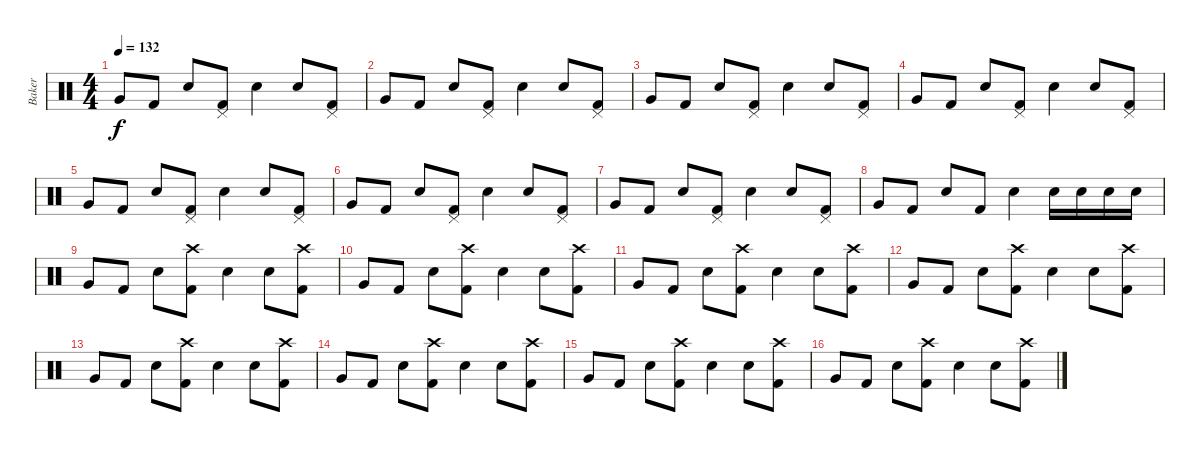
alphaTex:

\track ("Baker" "Baker") {instrument percussion}
\staff {score}
\articulation defaults
\ts (4 4)
\tempo 132
\clef neutral
\ks c "Very Low Tom (hit)".8{dy f} "Kick (hit) 2".8 "Snare (hit) 2".8
("Pedal Hi-Hat (hit)" "Kick (hit) 2").8 "Snare (hit) 2".4 "Snare (hit) 2".8 ("Pedal Hi-Hat (hit)" "Kick (hit) 2").8 |
"Very Low Tom (hit)".8 "Kick (hit) 2".8 "Snare (hit) 2".8 ("Pedal Hi-Hat (hit)" "Kick (hit) 2").8 "Snare (hit) 2".4 "Snare (hit) 2".8 ("Pedal Hi-Hat (hit)" "Kick (hit) 2").8 |
"Very Low Tom (hit)".8 "Kick (hit) 2".8 "Snare (hit) 2".8 ("Pedal Hi-Hat (hit)" "Kick (hit) 2").8 "Snare (hit) 2".4 "Snare (hit) 2".8 ("Pedal Hi-Hat (hit)" "Kick (hit) 2").8 |
"Very Low Tom (hit)".8 "Kick (hit) 2".8 "Snare (hit) 2".8 ("Pedal Hi-Hat (hit)" "Kick (hit) 2").8 "Snare (hit) 2".4 "Snare (hit) 2".8 ("Pedal Hi-Hat (hit)" "Kick (hit) 2").8 |
"Very Low Tom (hit)".8 "Kick (hit) 2".8 "Snare (hit) 2".8 ("Pedal Hi-Hat (hit)" "Kick (hit) 2").8 "Snare (hit) 2".4 "Snare (hit) 2".8 ("Pedal Hi-Hat (hit)" "Kick (hit) 2").8 |
"Very Low Tom (hit)".8 "Kick (hit) 2".8 "Snare (hit) 2".8 ("Pedal Hi-Hat (hit)" "Kick (hit) 2").8 "Snare (hit) 2".4 "Snare (hit) 2".8 ("Pedal Hi-Hat (hit)" "Kick (hit) 2").8 |
"Very Low Tom (hit)".8 "Kick (hit) 2".8 "Snare (hit) 2".8 ("Pedal Hi-Hat (hit)" "Kick (hit) 2").8 "Snare (hit) 2".4 "Snare (hit) 2".8 ("Pedal Hi-Hat (hit)" "Kick (hit) 2").8 |
"Very Low Tom (hit)".8 "Kick (hit) 2".8 "Snare (hit) 2".8 "Kick (hit) 2".8 "Snare (hit) 2".4 "Electric Snare (hit)".16 "Electric Snare (hit)".16 "Electric Snare (hit)".16 "Electric Snare (hit)".16 |
"Very Low Tom (hit)".8 "Kick (hit) 2".8 "Snare (hit) 2".8 ("Crash high (hit)" "Kick (hit) 2").8 "Snare (hit) 2".4 "Snare (hit) 2".8 ("Crash high (hit)" "Kick (hit) 2").8 |
"Very Low Tom (hit)".8 "Kick (hit) 2".8 "Snare (hit) 2".8 ("Crash high (hit)" "Kick (hit) 2").8 "Snare (hit) 2".4 "Snare (hit) 2".8 ("Crash high (hit)" "Kick (hit) 2").8 |
"Very Low Tom (hit)".8 "Kick (hit) 2".8 "Snare (hit) 2".8 ("Crash high (hit)" "Kick (hit) 2").8 "Snare (hit) 2".4 "Snare (hit) 2".8 ("Crash high (hit)" "Kick (hit) 2").8 |
"Very Low Tom (hit)".8 "Kick (hit) 2".8 "Snare (hit) 2".8 ("Crash high (hit)" "Kick (hit) 2").8 "Snare (hit) 2".4 "Snare (hit) 2".8 ("Crash high (hit)" "Kick (hit) 2").8 |
"Very Low Tom (hit)".8 "Kick (hit) 2".8 "Snare (hit) 2".8 ("Crash high (hit)" "Kick (hit) 2").8 "Snare (hit) 2".4 "Snare (hit) 2".8 ("Crash high (hit)" "Kick (hit) 2").8 |
"Very Low Tom (hit)".8 "Kick (hit) 2".8 "Snare (hit) 2".8 ("Crash high (hit)" "Kick (hit) 2").8 "Snare (hit) 2".4 "Snare (hit) 2".8 ("Crash high (hit)" "Kick (hit) 2").8 |
"Very Low Tom (hit)".8 "Kick (hit) 2".8 "Snare (hit) 2".8 ("Crash high (hit)" "Kick (hit) 2").8 "Snare (hit) 2".4 "Snare (hit) 2".8 ("Crash high (hit)" "Kick (hit) 2").8 |
"Very Low Tom (hit)".8 "Kick (hit) 2".8 "Snare (hit) 2".8 ("Crash high (hit)" "Kick (hit) 2").8 "Snare (hit) 2".4 "Snare (hit) 2".8 ("Crash high (hit)" "Kick (hit) 2").8
